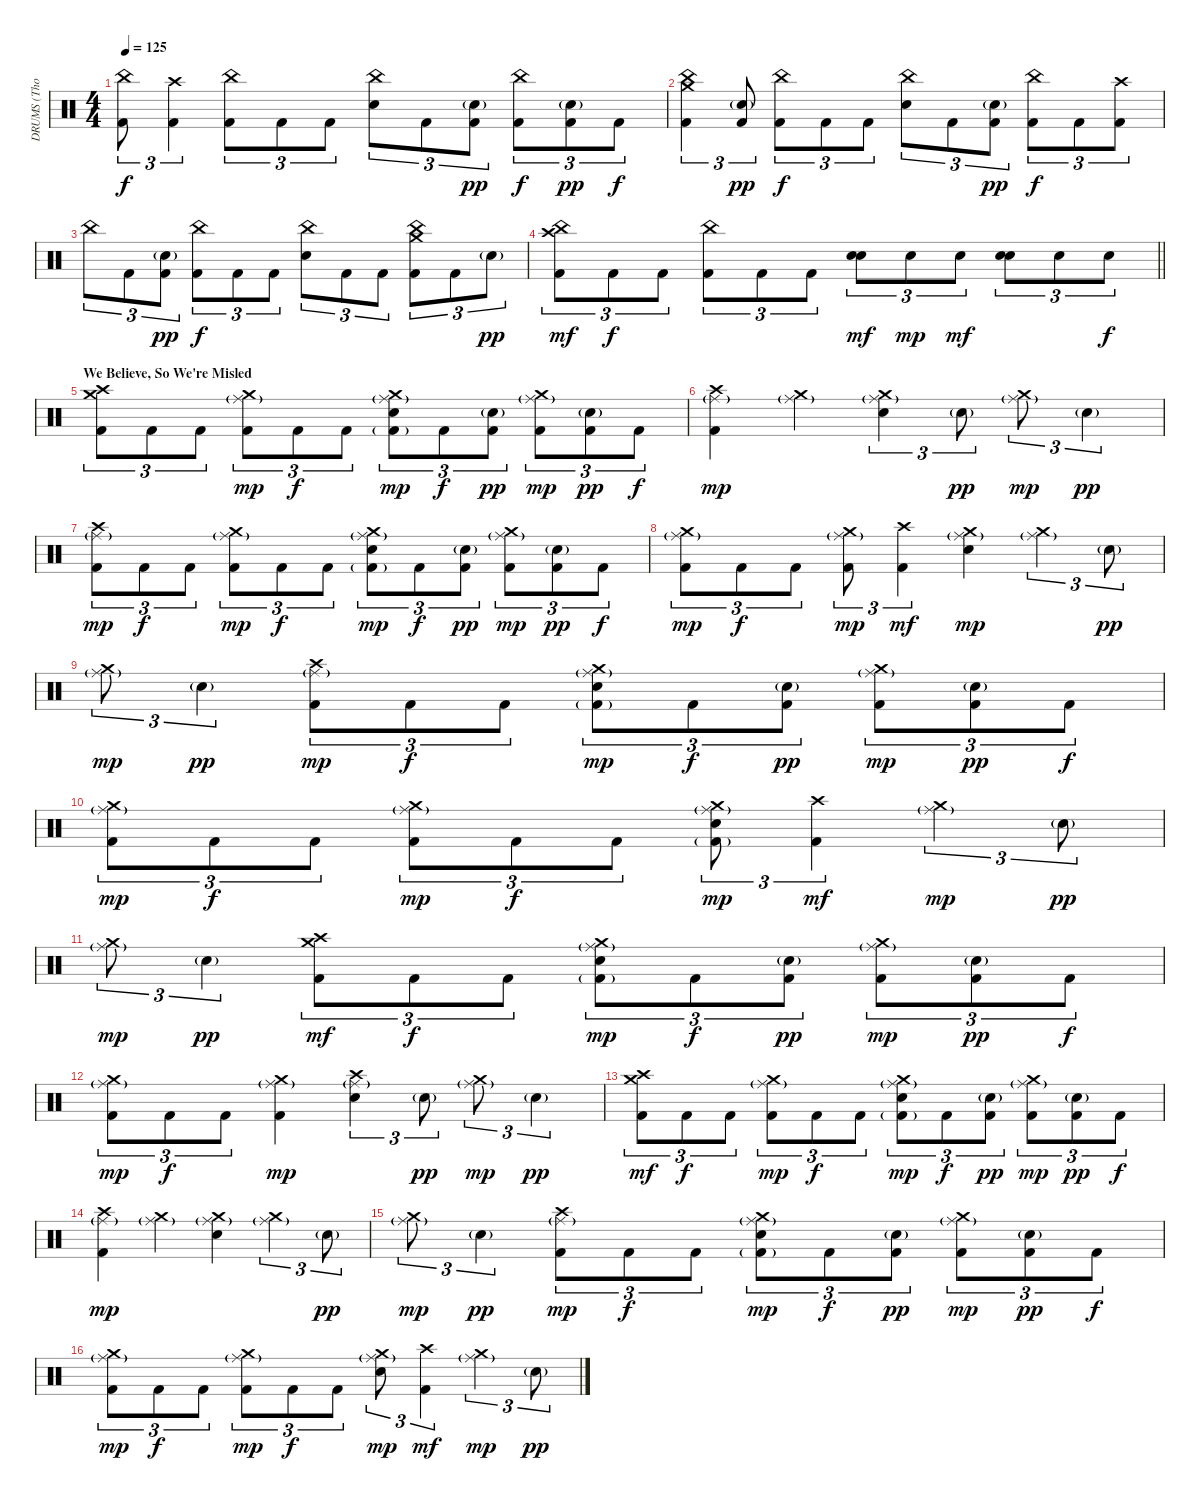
\track ("DRUMS (Thomas Haake)" "DRUMS (Tho") {instrument percussion}
\staff {score}
\articulation defaults
\ts (4 4)
\tempo 125
\clef neutral
\ks c
("China (hit)" "Kick (hit) 2").8{tu (3 2) dy f} ("Crash high (hit)" "Kick (hit) 2").4{tu (3 2)} ("China (hit)" "Kick (hit) 2").8{tu (3 2)} "Kick (hit) 2".8{tu (3 2)} "Kick (hit) 2".8{tu (3 2)} ("China (hit)" "Electric Snare (hit)").8{tu (3 2)} "Kick (hit) 2".8{tu (3 2)} ("Electric Snare (hit)"{g} "Kick (hit) 2").8{tu (3 2) dy pp} ("China (hit)" "Kick (hit) 2").8{tu (3 2) dy f} ("Electric Snare (hit)"{g} "Kick (hit) 2").8{tu (3 2) dy pp} "Kick (hit) 2".8{tu (3 2) dy f} |
("China (hit)" "Crash medium (hit)" "Kick (hit) 2").4{tu (3 2)} ("Electric Snare (hit)"{g} "Kick (hit) 2").8{tu (3 2) dy pp} ("China (hit)" "Kick (hit) 2").8{tu (3 2) dy f} "Kick (hit) 2".8{tu (3 2)} "Kick (hit) 2".8{tu (3 2)} ("China (hit)" "Electric Snare (hit)").8{tu (3 2)} "Kick (hit) 2".8{tu (3 2)} ("Electric Snare (hit)"{g} "Kick (hit) 2").8{tu (3 2) dy pp} ("China (hit)" "Kick (hit) 2").8{tu (3 2) dy f} "Kick (hit) 2".8{tu (3 2)} ("Crash high (hit)" "Kick (hit) 2").8{tu (3 2)} |
"China (hit)".8{tu (3 2)} "Kick (hit) 2".8{tu (3 2)} ("Electric Snare (hit)"{g} "Kick (hit) 2").8{tu (3 2) dy pp} ("China (hit)" "Kick (hit) 2").8{tu (3 2) dy f} "Kick (hit) 2".8{tu (3 2)} "Kick (hit) 2".8{tu (3 2)} ("China (hit)" "Electric Snare (hit)").8{tu (3 2)} "Kick (hit) 2".8{tu (3 2)} "Kick (hit) 2".8{tu (3 2)} ("China (hit)" "Crash medium (hit)" "Kick (hit) 2").8{tu (3 2)} "Kick (hit) 2".8{tu (3 2)} "Electric Snare (hit)"{g}.8{tu (3 2) dy pp} |
\barLineRight lightlight
("China (hit)" "Crash high (hit)" "Kick (hit) 2").8{tu (3 2) dy mf} "Kick (hit) 2".8{tu (3 2) dy f} "Kick (hit) 2".8{tu (3 2)} ("China (hit)" "Kick (hit) 2").8{tu (3 2)} "Kick (hit) 2".8{tu (3 2)} "Kick (hit) 2".8{tu (3 2)} ("Electric Snare (hit)" "Electric Snare (hit)").8{tu (3 2) bd 120 dy mf} "Electric Snare (hit)".8{tu (3 2) dy mp} "Electric Snare (hit)".8{tu (3 2) dy mf} ("Electric Snare (hit)" "Electric Snare (hit)").8{tu (3 2) bd 30} "Electric Snare (hit)".8{tu (3 2)} "Electric Snare (hit)".8{tu (3 2) dy f} |
\section ("" "We Believe, So We're Misled")
("Crash medium (hit)" "Crash high (hit)" "Kick (hit) 2").8{tu (3 2)} "Kick (hit) 2".8{tu (3 2)} "Kick (hit) 2".8{tu (3 2)} ("Crash medium (hit)" "Ride (middle)"{g} "Kick (hit) 2").8{tu (3 2) dy mp} "Kick (hit) 2".8{tu (3 2) dy f} "Kick (hit) 2".8{tu (3 2)} ("Crash medium (hit)" "Ride (middle)"{g} "Electric Snare (hit)" "Kick (hit) 2"{g}).8{tu (3 2) dy mp} "Kick (hit) 2".8{tu (3 2) dy f} ("Electric Snare (hit)"{g} "Kick (hit) 2").8{tu (3 2) dy pp} ("Crash medium (hit)" "Ride (middle)"{g} "Kick (hit) 2").8{tu (3 2) dy mp} ("Electric Snare (hit)"{g} "Kick (hit) 2").8{tu (3 2) dy pp} "Kick (hit) 2".8{tu (3 2) dy f} |
("Crash high (hit)" "Ride (middle)"{g} "Kick (hit) 2").4{dy mp} ("Crash medium (hit)" "Ride (middle)"{g}).4 ("Crash medium (hit)" "Ride (middle)"{g} "Electric Snare (hit)").4{tu (3 2)} "Electric Snare (hit)"{g}.8{tu (3 2) dy pp} ("Crash medium (hit)" "Ride (middle)"{g}).8{tu (3 2) dy mp} "Electric Snare (hit)"{g}.4{tu (3 2) dy pp} |
("Crash high (hit)" "Ride (middle)"{g} "Kick (hit) 2").8{tu (3 2) dy mp} "Kick (hit) 2".8{tu (3 2) dy f} "Kick (hit) 2".8{tu (3 2)} ("Crash medium (hit)" "Ride (middle)"{g} "Kick (hit) 2").8{tu (3 2) dy mp} "Kick (hit) 2".8{tu (3 2) dy f} "Kick (hit) 2".8{tu (3 2)} ("Crash medium (hit)" "Ride (middle)"{g} "Electric Snare (hit)" "Kick (hit) 2"{g}).8{tu (3 2) dy mp} "Kick (hit) 2".8{tu (3 2) dy f} ("Electric Snare (hit)"{g} "Kick (hit) 2").8{tu (3 2) dy pp} ("Crash medium (hit)" "Ride (middle)"{g} "Kick (hit) 2").8{tu (3 2) dy mp} ("Electric Snare (hit)"{g} "Kick (hit) 2").8{tu (3 2) dy pp} "Kick (hit) 2".8{tu (3 2) dy f} |
("Crash medium (hit)" "Ride (middle)"{g} "Kick (hit) 2").8{tu (3 2) dy mp} "Kick (hit) 2".8{tu (3 2) dy f} "Kick (hit) 2".8{tu (3 2)} ("Crash medium (hit)" "Ride (middle)"{g} "Kick (hit) 2").8{tu (3 2) dy mp} ("Crash high (hit)" "Kick (hit) 2").4{tu (3 2) dy mf} ("Crash medium (hit)" "Ride (middle)"{g} "Electric Snare (hit)").4{dy mp} ("Crash medium (hit)" "Ride (middle)"{g}).4{tu (3 2)} "Electric Snare (hit)"{g}.8{tu (3 2) dy pp} |
("Crash medium (hit)" "Ride (middle)"{g}).8{tu (3 2) dy mp} "Electric Snare (hit)"{g}.4{tu (3 2) dy pp} ("Crash high (hit)" "Ride (middle)"{g} "Kick (hit) 2").8{tu (3 2) dy mp} "Kick (hit) 2".8{tu (3 2) dy f} "Kick (hit) 2".8{tu (3 2)} ("Crash medium (hit)" "Ride (middle)"{g} "Electric Snare (hit)" "Kick (hit) 2"{g}).8{tu (3 2) dy mp} "Kick (hit) 2".8{tu (3 2) dy f} ("Electric Snare (hit)"{g} "Kick (hit) 2").8{tu (3 2) dy pp} ("Crash medium (hit)" "Ride (middle)"{g} "Kick (hit) 2").8{tu (3 2) dy mp} ("Electric Snare (hit)"{g} "Kick (hit) 2").8{tu (3 2) dy pp} "Kick (hit) 2".8{tu (3 2) dy f} |
("Crash medium (hit)" "Ride (middle)"{g} "Kick (hit) 2").8{tu (3 2) dy mp} "Kick (hit) 2".8{tu (3 2) dy f} "Kick (hit) 2".8{tu (3 2)} ("Crash medium (hit)" "Ride (middle)"{g} "Kick (hit) 2").8{tu (3 2) dy mp} "Kick (hit) 2".8{tu (3 2) dy f} "Kick (hit) 2".8{tu (3 2)} ("Crash medium (hit)" "Ride (middle)"{g} "Electric Snare (hit)" "Kick (hit) 2"{g}).8{tu (3 2) dy mp} ("Crash high (hit)" "Kick (hit) 2").4{tu (3 2) dy mf} ("Crash medium (hit)" "Ride (middle)"{g}).4{tu (3 2) dy mp} "Electric Snare (hit)"{g}.8{tu (3 2) dy pp} |
("Crash medium (hit)" "Ride (middle)"{g}).8{tu (3 2) dy mp} "Electric Snare (hit)"{g}.4{tu (3 2) dy pp} ("Crash high (hit)" "Crash medium (hit)" "Kick (hit) 2").8{tu (3 2) dy mf} "Kick (hit) 2".8{tu (3 2) dy f} "Kick (hit) 2".8{tu (3 2)} ("Crash medium (hit)" "Ride (middle)"{g} "Electric Snare (hit)" "Kick (hit) 2"{g}).8{tu (3 2) dy mp} "Kick (hit) 2".8{tu (3 2) dy f} ("Electric Snare (hit)"{g} "Kick (hit) 2").8{tu (3 2) dy pp} ("Crash medium (hit)" "Ride (middle)"{g} "Kick (hit) 2").8{tu (3 2) dy mp} ("Electric Snare (hit)"{g} "Kick (hit) 2").8{tu (3 2) dy pp} "Kick (hit) 2".8{tu (3 2) dy f} |
("Crash medium (hit)" "Ride (middle)"{g} "Kick (hit) 2").8{tu (3 2) dy mp} "Kick (hit) 2".8{tu (3 2) dy f} "Kick (hit) 2".8{tu (3 2)} ("Crash medium (hit)" "Ride (middle)"{g} "Kick (hit) 2").4{dy mp} ("Crash high (hit)" "Ride (middle)"{g} "Electric Snare (hit)").4{tu (3 2)} "Electric Snare (hit)"{g}.8{tu (3 2) dy pp} ("Crash medium (hit)" "Ride (middle)"{g}).8{tu (3 2) dy mp} "Electric Snare (hit)"{g}.4{tu (3 2) dy pp} |
("Crash medium (hit)" "Crash high (hit)" "Kick (hit) 2").8{tu (3 2) dy mf} "Kick (hit) 2".8{tu (3 2) dy f} "Kick (hit) 2".8{tu (3 2)} ("Crash medium (hit)" "Ride (middle)"{g} "Kick (hit) 2").8{tu (3 2) dy mp} "Kick (hit) 2".8{tu (3 2) dy f} "Kick (hit) 2".8{tu (3 2)} ("Crash medium (hit)" "Ride (middle)"{g} "Electric Snare (hit)" "Kick (hit) 2"{g}).8{tu (3 2) dy mp} "Kick (hit) 2".8{tu (3 2) dy f} ("Electric Snare (hit)"{g} "Kick (hit) 2").8{tu (3 2) dy pp} ("Crash medium (hit)" "Ride (middle)"{g} "Kick (hit) 2").8{tu (3 2) dy mp} ("Electric Snare (hit)"{g} "Kick (hit) 2").8{tu (3 2) dy pp} "Kick (hit) 2".8{tu (3 2) dy f} |
("Crash high (hit)" "Ride (middle)"{g} "Kick (hit) 2").4{dy mp} ("Crash medium (hit)" "Ride (middle)"{g}).4 ("Crash medium (hit)" "Ride (middle)"{g} "Electric Snare (hit)").4 ("Crash medium (hit)" "Ride (middle)"{g}).4{tu (3 2)} "Electric Snare (hit)"{g}.8{tu (3 2) dy pp} |
("Crash medium (hit)" "Ride (middle)"{g}).8{tu (3 2) dy mp} "Electric Snare (hit)"{g}.4{tu (3 2) dy pp} ("Crash high (hit)" "Ride (middle)"{g} "Kick (hit) 2").8{tu (3 2) dy mp} "Kick (hit) 2".8{tu (3 2) dy f} "Kick (hit) 2".8{tu (3 2)} ("Crash medium (hit)" "Ride (middle)"{g} "Electric Snare (hit)" "Kick (hit) 2"{g}).8{tu (3 2) dy mp} "Kick (hit) 2".8{tu (3 2) dy f} ("Electric Snare (hit)"{g} "Kick (hit) 2").8{tu (3 2) dy pp} ("Crash medium (hit)" "Ride (middle)"{g} "Kick (hit) 2").8{tu (3 2) dy mp} ("Electric Snare (hit)"{g} "Kick (hit) 2").8{tu (3 2) dy pp} "Kick (hit) 2".8{tu (3 2) dy f} |
("Crash medium (hit)" "Ride (middle)"{g} "Kick (hit) 2").8{tu (3 2) dy mp} "Kick (hit) 2".8{tu (3 2) dy f} "Kick (hit) 2".8{tu (3 2)} ("Crash medium (hit)" "Ride (middle)"{g} "Kick (hit) 2").8{tu (3 2) dy mp} "Kick (hit) 2".8{tu (3 2) dy f} "Kick (hit) 2".8{tu (3 2)} ("Crash medium (hit)" "Ride (middle)"{g} "Electric Snare (hit)").8{tu (3 2) dy mp} ("Crash high (hit)" "Kick (hit) 2").4{tu (3 2) dy mf} ("Crash medium (hit)" "Ride (middle)"{g}).4{tu (3 2) dy mp} "Electric Snare (hit)"{g}.8{tu (3 2) dy pp}
